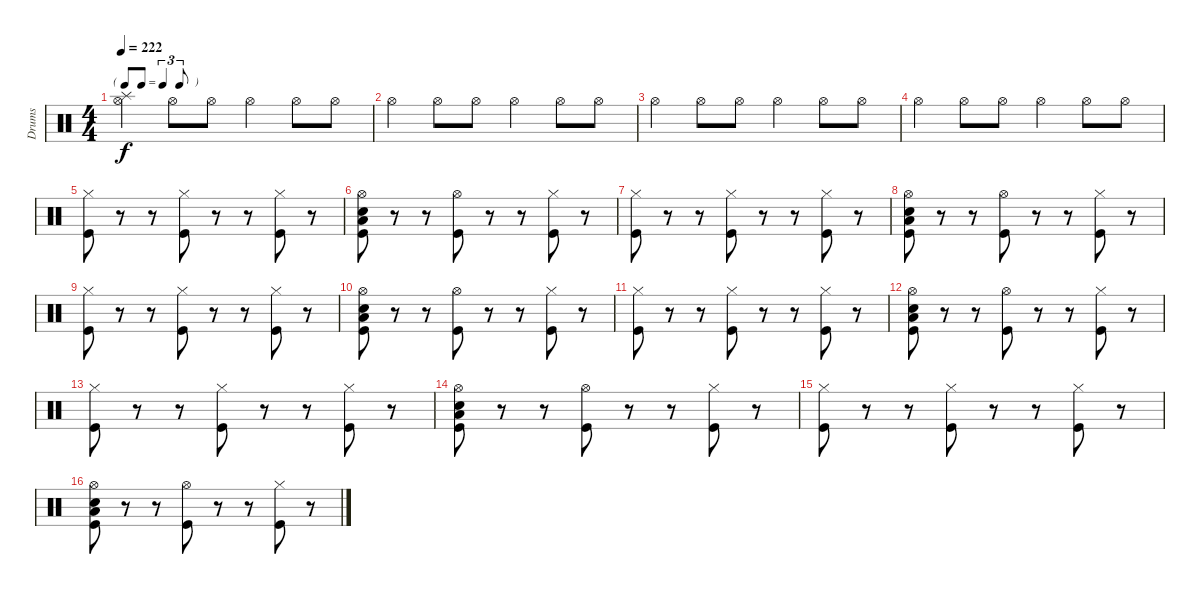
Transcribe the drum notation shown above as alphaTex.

\track ("Drums" "Drums") {instrument percussion}
\staff {score}
\articulation defaults
\ts (4 4)
\tf triplet8th
\tempo 222
\clef neutral
\ks c
("Splash (hit)" "Hi-Hat (open)").4{dy f} "Hi-Hat (open)".8 "Hi-Hat (open)".8 "Hi-Hat (open)".4 "Hi-Hat (open)".8 "Hi-Hat (open)".8 |
"Hi-Hat (open)".4 "Hi-Hat (open)".8 "Hi-Hat (open)".8 "Hi-Hat (open)".4 "Hi-Hat (open)".8 "Hi-Hat (open)".8 |
"Hi-Hat (open)".4 "Hi-Hat (open)".8 "Hi-Hat (open)".8 "Hi-Hat (open)".4 "Hi-Hat (open)".8 "Hi-Hat (open)".8 |
"Hi-Hat (open)".4 "Hi-Hat (open)".8 "Hi-Hat (open)".8 "Hi-Hat (open)".4 "Hi-Hat (open)".8 "Hi-Hat (open)".8 |
("Hi-Hat (closed)" "Kick (hit)").8 r.8 r.8 ("Hi-Hat (closed)" "Kick (hit)").8 r.8 r.8 ("Hi-Hat (closed)" "Kick (hit)").8 r.8 |
("Snare (hit) 2" "Hi-Hat (open)" "Low Floor Tom (hit)" "Kick (hit)").8 r.8 r.8 ("Hi-Hat (open)" "Kick (hit)").8 r.8 r.8 ("Hi-Hat (closed)" "Kick (hit)").8 r.8 |
("Hi-Hat (closed)" "Kick (hit)").8 r.8 r.8 ("Hi-Hat (closed)" "Kick (hit)").8 r.8 r.8 ("Hi-Hat (closed)" "Kick (hit)").8 r.8 |
("Snare (hit) 2" "Hi-Hat (open)" "Low Floor Tom (hit)" "Kick (hit)").8 r.8 r.8 ("Hi-Hat (open)" "Kick (hit)").8 r.8 r.8 ("Hi-Hat (closed)" "Kick (hit)").8 r.8 |
("Hi-Hat (closed)" "Kick (hit)").8 r.8 r.8 ("Hi-Hat (closed)" "Kick (hit)").8 r.8 r.8 ("Hi-Hat (closed)" "Kick (hit)").8 r.8 |
("Snare (hit) 2" "Hi-Hat (open)" "Low Floor Tom (hit)" "Kick (hit)").8 r.8 r.8 ("Hi-Hat (open)" "Kick (hit)").8 r.8 r.8 ("Hi-Hat (closed)" "Kick (hit)").8 r.8 |
("Hi-Hat (closed)" "Kick (hit)").8 r.8 r.8 ("Hi-Hat (closed)" "Kick (hit)").8 r.8 r.8 ("Hi-Hat (closed)" "Kick (hit)").8 r.8 |
("Snare (hit) 2" "Hi-Hat (open)" "Low Floor Tom (hit)" "Kick (hit)").8 r.8 r.8 ("Hi-Hat (open)" "Kick (hit)").8 r.8 r.8 ("Hi-Hat (closed)" "Kick (hit)").8 r.8 |
("Hi-Hat (closed)" "Kick (hit)").8 r.8 r.8 ("Hi-Hat (closed)" "Kick (hit)").8 r.8 r.8 ("Hi-Hat (closed)" "Kick (hit)").8 r.8 |
("Snare (hit) 2" "Hi-Hat (open)" "Low Floor Tom (hit)" "Kick (hit)").8 r.8 r.8 ("Hi-Hat (open)" "Kick (hit)").8 r.8 r.8 ("Hi-Hat (closed)" "Kick (hit)").8 r.8 |
("Hi-Hat (closed)" "Kick (hit)").8 r.8 r.8 ("Hi-Hat (closed)" "Kick (hit)").8 r.8 r.8 ("Hi-Hat (closed)" "Kick (hit)").8 r.8 |
("Snare (hit) 2" "Hi-Hat (open)" "Low Floor Tom (hit)" "Kick (hit)").8 r.8 r.8 ("Hi-Hat (open)" "Kick (hit)").8 r.8 r.8 ("Hi-Hat (closed)" "Kick (hit)").8 r.8
